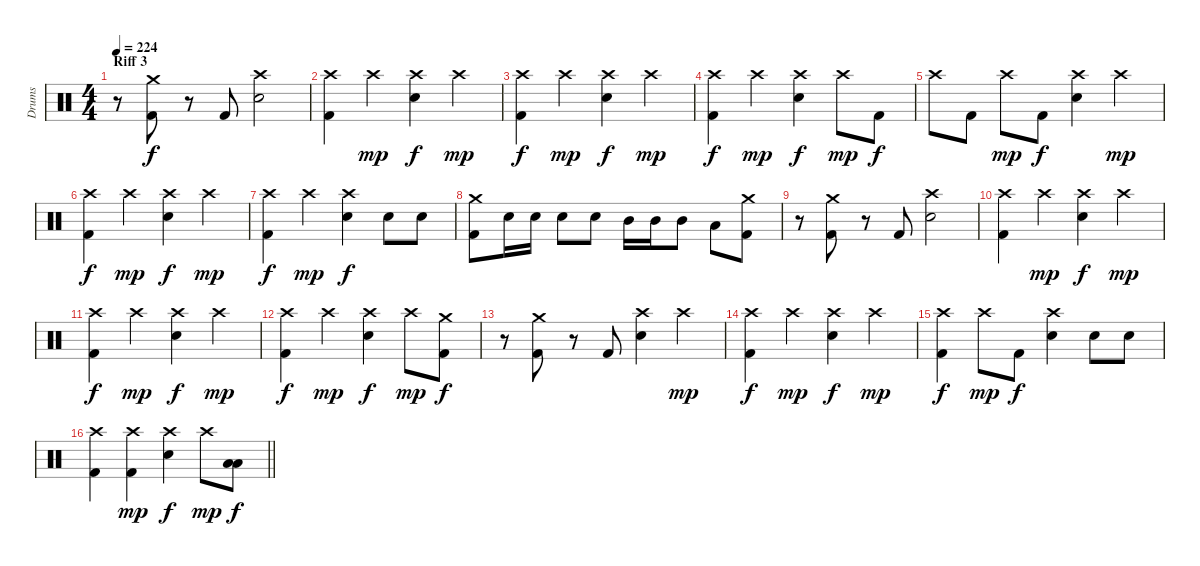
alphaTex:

\track ("Drums" "Drums") {instrument percussion}
\staff {score}
\articulation defaults
\ts (4 4)
\section ("" "Riff 3")
\tempo 224
\clef neutral
\ks c
r.8{dy f} ("Kick (hit) 2" "Crash medium (hit)").8 r.8 "Kick (hit) 2".8 ("Electric Snare (hit)" "Crash high (hit)").2 |
("Crash high (hit)" "Kick (hit) 2").4 "Crash high (hit)".4{dy mp} ("Electric Snare (hit)" "Crash high (hit)").4{dy f} "Crash high (hit)".4{dy mp} |
("Crash high (hit)" "Kick (hit) 2").4{dy f} "Crash high (hit)".4{dy mp} ("Electric Snare (hit)" "Crash high (hit)").4{dy f} "Crash high (hit)".4{dy mp} |
("Crash high (hit)" "Kick (hit) 2").4{dy f} "Crash high (hit)".4{dy mp} ("Electric Snare (hit)" "Crash high (hit)").4{dy f} "Crash high (hit)".8{dy mp} "Kick (hit) 2".8{dy f} |
"Crash high (hit)".8 "Kick (hit) 2".8 "Crash high (hit)".8{dy mp} "Kick (hit) 2".8{dy f} ("Electric Snare (hit)" "Crash high (hit)").4 "Crash high (hit)".4{dy mp} |
("Crash high (hit)" "Kick (hit) 2").4{dy f} "Crash high (hit)".4{dy mp} ("Electric Snare (hit)" "Crash high (hit)").4{dy f} "Crash high (hit)".4{dy mp} |
("Crash high (hit)" "Kick (hit) 2").4{dy f} "Crash high (hit)".4{dy mp} ("Electric Snare (hit)" "Crash high (hit)").4{dy f} "Electric Snare (hit)".8 "Electric Snare (hit)".8 |
("Crash medium (hit)" "Kick (hit) 2").8 "Electric Snare (hit)".16 "Electric Snare (hit)".16 "Electric Snare (hit)".8 "Electric Snare (hit)".8 "Mid Tom (hit)".16 "Mid Tom (hit)".16 "Mid Tom (hit)".8 "Low Tom (hit)".8 ("Crash medium (hit)" "Kick (hit) 2").8 |
r.8 ("Kick (hit) 2" "Crash medium (hit)").8 r.8 "Kick (hit) 2".8 ("Electric Snare (hit)" "Crash high (hit)").2 |
("Crash high (hit)" "Kick (hit) 2").4 "Crash high (hit)".4{dy mp} ("Electric Snare (hit)" "Crash high (hit)").4{dy f} "Crash high (hit)".4{dy mp} |
("Crash high (hit)" "Kick (hit) 2").4{dy f} "Crash high (hit)".4{dy mp} ("Electric Snare (hit)" "Crash high (hit)").4{dy f} "Crash high (hit)".4{dy mp} |
("Crash high (hit)" "Kick (hit) 2").4{dy f} "Crash high (hit)".4{dy mp} ("Electric Snare (hit)" "Crash high (hit)").4{dy f} "Crash high (hit)".8{dy mp} ("Kick (hit) 2" "Crash medium (hit)").8{dy f} |
r.8 ("Kick (hit) 2" "Crash medium (hit)").8 r.8 "Kick (hit) 2".8 ("Electric Snare (hit)" "Crash high (hit)").4 "Crash high (hit)".4{dy mp} |
("Crash high (hit)" "Kick (hit) 2").4{dy f} "Crash high (hit)".4{dy mp} ("Electric Snare (hit)" "Crash high (hit)").4{dy f} "Crash high (hit)".4{dy mp} |
("Crash high (hit)" "Kick (hit) 2").4{dy f} "Crash high (hit)".8{dy mp} "Kick (hit) 2".8{dy f} ("Electric Snare (hit)" "Crash high (hit)").4 "Electric Snare (hit)".8 "Electric Snare (hit)".8 |
\barLineRight lightlight
("Crash high (hit)" "Kick (hit) 2").4 ("Kick (hit) 2" "Crash high (hit)").4{dy mp} ("Electric Snare (hit)" "Crash high (hit)").4{dy f} "Crash high (hit)".8{dy mp} ("Low Tom (hit)" "Low Floor Tom (hit)").8{dy f}
